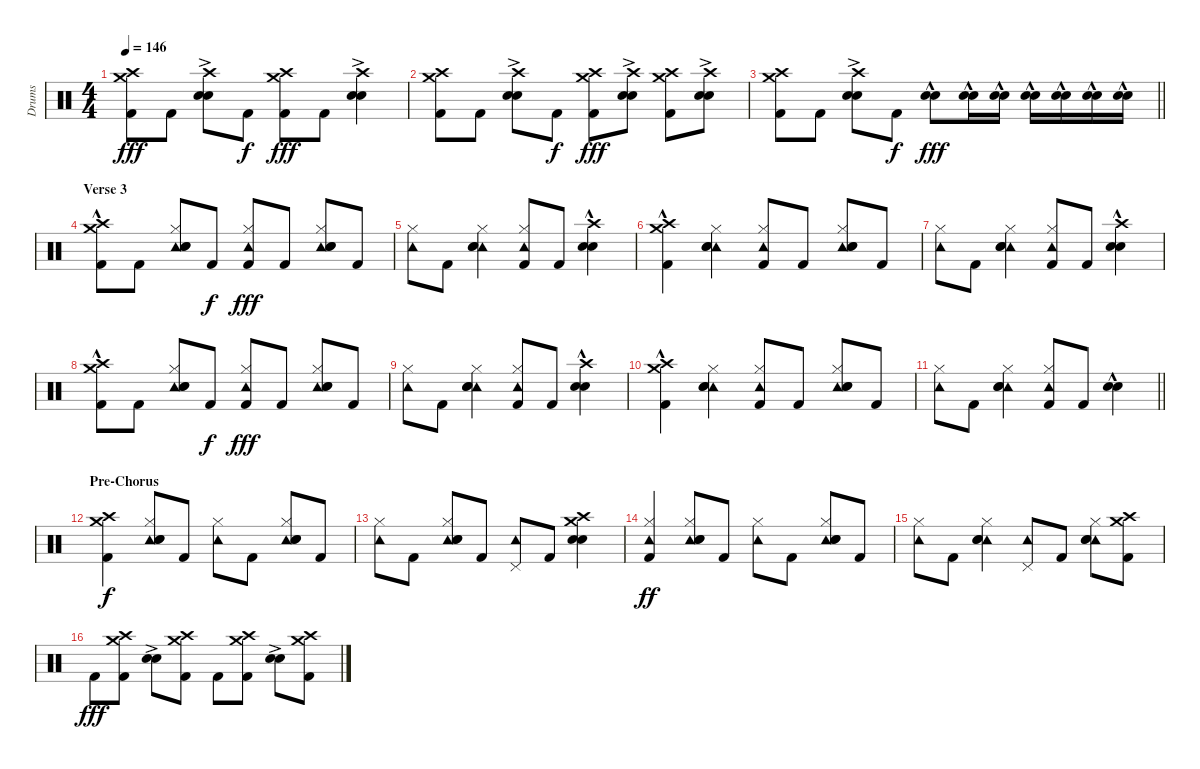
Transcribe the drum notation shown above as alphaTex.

\track ("Drums" "Drums") {instrument percussion}
\staff {score}
\articulation defaults
\ts (4 4)
\tempo 146
\clef neutral
\ks c
("Crash high (hit)" "Crash medium (hit)" "Kick (hit) 2").8{dy fff} "Kick (hit) 2".8 ("Crash high (hit)"{ac} "Electric Snare (hit)"{ac} "Electric Snare (hit)"{ac}).8 "Kick (hit) 2".8{dy f} ("Crash high (hit)" "Crash medium (hit)" "Kick (hit) 2").8{dy fff} "Kick (hit) 2".8 ("Crash high (hit)"{ac} "Electric Snare (hit)"{ac} "Electric Snare (hit)"{ac}).4 |
("Crash high (hit)" "Crash medium (hit)" "Kick (hit) 2").8 "Kick (hit) 2".8 ("Crash high (hit)"{ac} "Electric Snare (hit)"{ac} "Electric Snare (hit)"{ac}).8 "Kick (hit) 2".8{dy f} ("Crash high (hit)" "Crash medium (hit)" "Kick (hit) 2").8{dy fff} ("Crash high (hit)"{ac} "Electric Snare (hit)"{ac} "Electric Snare (hit)"{ac}).8 ("Crash high (hit)" "Crash medium (hit)" "Kick (hit) 2").8 ("Crash high (hit)"{ac} "Electric Snare (hit)"{ac} "Electric Snare (hit)"{ac}).8 |
\barLineRight lightlight
("Crash high (hit)" "Crash medium (hit)" "Kick (hit) 2").8 "Kick (hit) 2".8 ("Crash high (hit)"{ac} "Electric Snare (hit)"{ac} "Electric Snare (hit)"{ac}).8 "Kick (hit) 2".8{dy f} ("Electric Snare (hit)"{hac} "Electric Snare (hit)"{hac}).8{dy fff} ("Electric Snare (hit)"{hac} "Electric Snare (hit)"{hac}).16 ("Electric Snare (hit)"{hac} "Electric Snare (hit)"{hac}).16 ("Electric Snare (hit)"{hac} "Electric Snare (hit)"{hac}).16 ("Electric Snare (hit)"{hac} "Electric Snare (hit)"{hac}).16 ("Electric Snare (hit)"{hac} "Electric Snare (hit)"{hac}).16 ("Electric Snare (hit)"{hac} "Electric Snare (hit)"{hac}).16 |
\section ("" "Verse 3")
("Crash high (hit)"{hac} "Crash medium (hit)"{hac} "Kick (hit) 2"{hac}).8 "Kick (hit) 2".8 ("Hi-Hat (closed)" "Tambourine (hit)" "Electric Snare (hit)" "Electric Snare (hit)").8 "Kick (hit) 2".8{dy f} ("Hi-Hat (closed)" "Tambourine (hit)" "Kick (hit) 2").8{dy fff} "Kick (hit) 2".8 ("Hi-Hat (closed)" "Tambourine (hit)" "Electric Snare (hit)" "Electric Snare (hit)").8 "Kick (hit) 2".8 |
("Hi-Hat (closed)" "Tambourine (hit)").8 "Kick (hit) 2".8 ("Hi-Hat (closed)" "Tambourine (hit)" "Electric Snare (hit)" "Electric Snare (hit)").4 ("Hi-Hat (closed)" "Tambourine (hit)" "Kick (hit) 2").8 "Kick (hit) 2".8 ("Crash high (hit)"{hac} "Electric Snare (hit)"{hac} "Electric Snare (hit)"{hac}).4 |
("Crash high (hit)"{hac} "Crash medium (hit)"{hac} "Kick (hit) 2"{hac}).4 ("Hi-Hat (closed)" "Tambourine (hit)" "Electric Snare (hit)" "Electric Snare (hit)").4 ("Hi-Hat (closed)" "Tambourine (hit)" "Kick (hit) 2").8 "Kick (hit) 2".8 ("Hi-Hat (closed)" "Tambourine (hit)" "Electric Snare (hit)" "Electric Snare (hit)").8 "Kick (hit) 2".8 |
("Hi-Hat (closed)" "Tambourine (hit)").8 "Kick (hit) 2".8 ("Hi-Hat (closed)" "Tambourine (hit)" "Electric Snare (hit)" "Electric Snare (hit)").4 ("Hi-Hat (closed)" "Tambourine (hit)" "Kick (hit) 2").8 "Kick (hit) 2".8 ("Crash high (hit)"{hac} "Electric Snare (hit)"{hac} "Electric Snare (hit)"{hac}).4 |
("Crash high (hit)"{hac} "Crash medium (hit)"{hac} "Kick (hit) 2"{hac}).8 "Kick (hit) 2".8 ("Hi-Hat (closed)" "Tambourine (hit)" "Electric Snare (hit)" "Electric Snare (hit)").8 "Kick (hit) 2".8{dy f} ("Hi-Hat (closed)" "Tambourine (hit)" "Kick (hit) 2").8{dy fff} "Kick (hit) 2".8 ("Hi-Hat (closed)" "Tambourine (hit)" "Electric Snare (hit)" "Electric Snare (hit)").8 "Kick (hit) 2".8 |
("Hi-Hat (closed)" "Tambourine (hit)").8 "Kick (hit) 2".8 ("Hi-Hat (closed)" "Tambourine (hit)" "Electric Snare (hit)" "Electric Snare (hit)").4 ("Hi-Hat (closed)" "Tambourine (hit)" "Kick (hit) 2").8 "Kick (hit) 2".8 ("Crash high (hit)"{hac} "Electric Snare (hit)"{hac} "Electric Snare (hit)"{hac}).4 |
("Crash high (hit)"{hac} "Crash medium (hit)"{hac} "Kick (hit) 2"{hac}).4 ("Hi-Hat (closed)" "Tambourine (hit)" "Electric Snare (hit)" "Electric Snare (hit)").4 ("Hi-Hat (closed)" "Tambourine (hit)" "Kick (hit) 2").8 "Kick (hit) 2".8 ("Hi-Hat (closed)" "Tambourine (hit)" "Electric Snare (hit)" "Electric Snare (hit)").8 "Kick (hit) 2".8 |
\barLineRight lightlight
("Hi-Hat (closed)" "Tambourine (hit)").8 "Kick (hit) 2".8 ("Hi-Hat (closed)" "Tambourine (hit)" "Electric Snare (hit)" "Electric Snare (hit)").4 ("Hi-Hat (closed)" "Tambourine (hit)" "Kick (hit) 2").8 "Kick (hit) 2".8 ("Electric Snare (hit)"{hac} "Electric Snare (hit)"{hac}).4 |
\section ("" "Pre-Chorus")
("Crash high (hit)" "Crash medium (hit)" "Kick (hit) 2").4{dy f} ("Tambourine (hit)" "Hi-Hat (closed)" "Electric Snare (hit)" "Electric Snare (hit)").8 "Kick (hit) 2".8 ("Tambourine (hit)" "Hi-Hat (closed)").8 "Kick (hit) 2".8 ("Hi-Hat (closed)" "Tambourine (hit)" "Electric Snare (hit)" "Electric Snare (hit)").8 "Kick (hit) 2".8 |
("Tambourine (hit)" "Hi-Hat (closed)").8 "Kick (hit) 2".8 ("Tambourine (hit)" "Hi-Hat (closed)" "Electric Snare (hit)" "Electric Snare (hit)").8 "Kick (hit) 2".8 ("Tambourine (hit)" "Pedal Hi-Hat (hit)").8 "Kick (hit) 2".8 ("Crash high (hit)" "Crash medium (hit)" "Electric Snare (hit)" "Electric Snare (hit)").4 |
("Tambourine (hit)" "Hi-Hat (closed)" "Kick (hit) 2").4{dy ff} ("Tambourine (hit)" "Hi-Hat (closed)" "Electric Snare (hit)" "Electric Snare (hit)").8 "Kick (hit) 2".8 ("Tambourine (hit)" "Hi-Hat (closed)").8 "Kick (hit) 2".8 ("Tambourine (hit)" "Hi-Hat (closed)" "Electric Snare (hit)" "Electric Snare (hit)").8 "Kick (hit) 2".8 |
("Tambourine (hit)" "Hi-Hat (closed)").8 "Kick (hit) 2".8 ("Tambourine (hit)" "Hi-Hat (closed)" "Electric Snare (hit)" "Electric Snare (hit)").4 ("Tambourine (hit)" "Pedal Hi-Hat (hit)").8 "Kick (hit) 2".8 ("Tambourine (hit)" "Hi-Hat (closed)" "Electric Snare (hit)" "Electric Snare (hit)").8 ("Crash high (hit)" "Crash medium (hit)" "Kick (hit) 2").8 |
"Kick (hit) 2".8{dy fff} ("Crash high (hit)" "Crash medium (hit)" "Kick (hit) 2").8 ("Electric Snare (hit)"{ac} "Electric Snare (hit)"{ac}).8 ("Crash high (hit)" "Crash medium (hit)" "Kick (hit) 2").8 "Kick (hit) 2".8 ("Crash high (hit)" "Crash medium (hit)" "Kick (hit) 2").8 ("Electric Snare (hit)"{ac} "Electric Snare (hit)"{ac}).8 ("Crash high (hit)" "Crash medium (hit)" "Kick (hit) 2").8
